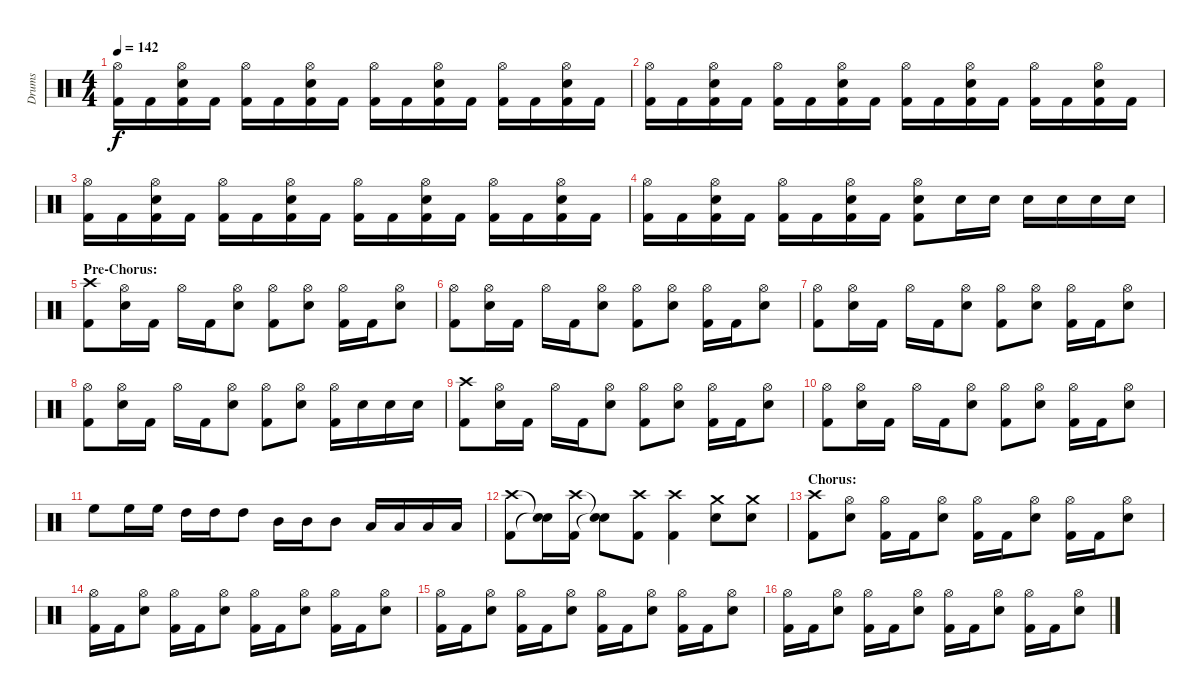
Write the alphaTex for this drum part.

\track ("Drums" "Drums") {instrument percussion}
\staff {score}
\articulation defaults
\ts (4 4)
\tempo 142
\clef neutral
\ks c
("Hi-Hat (open)" "Kick (hit) 2").16{dy f} "Kick (hit) 2".16 ("Hi-Hat (open)" "Electric Snare (hit)" "Kick (hit) 2").16 "Kick (hit) 2".16 ("Hi-Hat (open)" "Kick (hit) 2").16 "Kick (hit) 2".16 ("Hi-Hat (open)" "Electric Snare (hit)" "Kick (hit) 2").16 "Kick (hit) 2".16 ("Hi-Hat (open)" "Kick (hit) 2").16 "Kick (hit) 2".16 ("Hi-Hat (open)" "Electric Snare (hit)" "Kick (hit) 2").16 "Kick (hit) 2".16 ("Hi-Hat (open)" "Kick (hit) 2").16 "Kick (hit) 2".16 ("Hi-Hat (open)" "Electric Snare (hit)" "Kick (hit) 2").16 "Kick (hit) 2".16 |
("Hi-Hat (open)" "Kick (hit) 2").16 "Kick (hit) 2".16 ("Hi-Hat (open)" "Electric Snare (hit)" "Kick (hit) 2").16 "Kick (hit) 2".16 ("Hi-Hat (open)" "Kick (hit) 2").16 "Kick (hit) 2".16 ("Hi-Hat (open)" "Electric Snare (hit)" "Kick (hit) 2").16 "Kick (hit) 2".16 ("Hi-Hat (open)" "Kick (hit) 2").16 "Kick (hit) 2".16 ("Hi-Hat (open)" "Electric Snare (hit)" "Kick (hit) 2").16 "Kick (hit) 2".16 ("Hi-Hat (open)" "Kick (hit) 2").16 "Kick (hit) 2".16 ("Hi-Hat (open)" "Electric Snare (hit)" "Kick (hit) 2").16 "Kick (hit) 2".16 |
("Hi-Hat (open)" "Kick (hit) 2").16 "Kick (hit) 2".16 ("Hi-Hat (open)" "Electric Snare (hit)" "Kick (hit) 2").16 "Kick (hit) 2".16 ("Hi-Hat (open)" "Kick (hit) 2").16 "Kick (hit) 2".16 ("Hi-Hat (open)" "Electric Snare (hit)" "Kick (hit) 2").16 "Kick (hit) 2".16 ("Hi-Hat (open)" "Kick (hit) 2").16 "Kick (hit) 2".16 ("Hi-Hat (open)" "Electric Snare (hit)" "Kick (hit) 2").16 "Kick (hit) 2".16 ("Hi-Hat (open)" "Kick (hit) 2").16 "Kick (hit) 2".16 ("Hi-Hat (open)" "Electric Snare (hit)" "Kick (hit) 2").16 "Kick (hit) 2".16 |
("Hi-Hat (open)" "Kick (hit) 2").16 "Kick (hit) 2".16 ("Hi-Hat (open)" "Electric Snare (hit)" "Kick (hit) 2").16 "Kick (hit) 2".16 ("Hi-Hat (open)" "Kick (hit) 2").16 "Kick (hit) 2".16 ("Hi-Hat (open)" "Electric Snare (hit)" "Kick (hit) 2").16 "Kick (hit) 2".16 ("Hi-Hat (open)" "Electric Snare (hit)" "Kick (hit) 2").8 "Electric Snare (hit)".16 "Electric Snare (hit)".16 "Electric Snare (hit)".16 "Electric Snare (hit)".16 "Electric Snare (hit)".16 "Electric Snare (hit)".16 |
\section ("" "Pre-Chorus:")
("Crash high (hit)" "Kick (hit) 2").8 ("Hi-Hat (open)" "Electric Snare (hit)").16 "Kick (hit) 2".16 "Hi-Hat (open)".16 "Kick (hit) 2".16 ("Hi-Hat (open)" "Electric Snare (hit)").8 ("Hi-Hat (open)" "Kick (hit) 2").8 ("Hi-Hat (open)" "Electric Snare (hit)").8 ("Hi-Hat (open)" "Kick (hit) 2").16 "Kick (hit) 2".16 ("Hi-Hat (open)" "Electric Snare (hit)").8 |
("Hi-Hat (open)" "Kick (hit) 2").8 ("Hi-Hat (open)" "Electric Snare (hit)").16 "Kick (hit) 2".16 "Hi-Hat (open)".16 "Kick (hit) 2".16 ("Hi-Hat (open)" "Electric Snare (hit)").8 ("Hi-Hat (open)" "Kick (hit) 2").8 ("Hi-Hat (open)" "Electric Snare (hit)").8 ("Hi-Hat (open)" "Kick (hit) 2").16 "Kick (hit) 2".16 ("Hi-Hat (open)" "Electric Snare (hit)").8 |
("Hi-Hat (open)" "Kick (hit) 2").8 ("Hi-Hat (open)" "Electric Snare (hit)").16 "Kick (hit) 2".16 "Hi-Hat (open)".16 "Kick (hit) 2".16 ("Hi-Hat (open)" "Electric Snare (hit)").8 ("Hi-Hat (open)" "Kick (hit) 2").8 ("Hi-Hat (open)" "Electric Snare (hit)").8 ("Hi-Hat (open)" "Kick (hit) 2").16 "Kick (hit) 2".16 ("Hi-Hat (open)" "Electric Snare (hit)").8 |
("Hi-Hat (open)" "Kick (hit) 2").8 ("Hi-Hat (open)" "Electric Snare (hit)").16 "Kick (hit) 2".16 "Hi-Hat (open)".16 "Kick (hit) 2".16 ("Hi-Hat (open)" "Electric Snare (hit)").8 ("Hi-Hat (open)" "Kick (hit) 2").8 ("Hi-Hat (open)" "Electric Snare (hit)").8 ("Hi-Hat (open)" "Kick (hit) 2").16 "Electric Snare (hit)".16 "Electric Snare (hit)".16 "Electric Snare (hit)".16 |
("Crash high (hit)" "Kick (hit) 2").8 ("Hi-Hat (open)" "Electric Snare (hit)").16 "Kick (hit) 2".16 "Hi-Hat (open)".16 "Kick (hit) 2".16 ("Hi-Hat (open)" "Electric Snare (hit)").8 ("Hi-Hat (open)" "Kick (hit) 2").8 ("Hi-Hat (open)" "Electric Snare (hit)").8 ("Hi-Hat (open)" "Kick (hit) 2").16 "Kick (hit) 2".16 ("Hi-Hat (open)" "Electric Snare (hit)").8 |
("Hi-Hat (open)" "Kick (hit) 2").8 ("Hi-Hat (open)" "Electric Snare (hit)").16 "Kick (hit) 2".16 "Hi-Hat (open)".16 "Kick (hit) 2".16 ("Hi-Hat (open)" "Electric Snare (hit)").8 ("Hi-Hat (open)" "Kick (hit) 2").8 ("Hi-Hat (open)" "Electric Snare (hit)").8 ("Hi-Hat (open)" "Kick (hit) 2").16 "Kick (hit) 2".16 ("Hi-Hat (open)" "Electric Snare (hit)").8 |
"High Floor Tom (hit)".8 "High Floor Tom (hit)".16 "High Floor Tom (hit)".16 "High Tom (hit)".16 "High Tom (hit)".16 "High Tom (hit)".8 "Mid Tom (hit)".16 "Mid Tom (hit)".16 "Mid Tom (hit)".8 "Low Tom (hit)".16 "Low Tom (hit)".16 "Low Tom (hit)".16 "Low Tom (hit)".16 |
("Crash high (hit)" "Kick (hit) 2").8 ("Snare (hit)"{t} "Snare (hit)"{t}).16 ("Crash high (hit)" "Kick (hit) 2").16 ("Snare (hit)"{t} "Snare (hit)"{t}).8 ("Crash high (hit)" "Kick (hit) 2").8 ("Crash high (hit)" "Kick (hit) 2").4 ("Crash medium (hit)" "Electric Snare (hit)").8 ("Crash medium (hit)" "Electric Snare (hit)").8 |
\section ("" "Chorus:")
("Crash high (hit)" "Kick (hit) 2").8 ("Hi-Hat (open)" "Electric Snare (hit)").8 ("Hi-Hat (open)" "Kick (hit) 2").16 "Kick (hit) 2".16 ("Hi-Hat (open)" "Electric Snare (hit)").8 ("Hi-Hat (open)" "Kick (hit) 2").16 "Kick (hit) 2".16 ("Hi-Hat (open)" "Electric Snare (hit)").8 ("Hi-Hat (open)" "Kick (hit) 2").16 "Kick (hit) 2".16 ("Hi-Hat (open)" "Electric Snare (hit)").8 |
("Hi-Hat (open)" "Kick (hit) 2").16 "Kick (hit) 2".16 ("Hi-Hat (open)" "Electric Snare (hit)").8 ("Hi-Hat (open)" "Kick (hit) 2").16 "Kick (hit) 2".16 ("Hi-Hat (open)" "Electric Snare (hit)").8 ("Hi-Hat (open)" "Kick (hit) 2").16 "Kick (hit) 2".16 ("Hi-Hat (open)" "Electric Snare (hit)").8 ("Hi-Hat (open)" "Kick (hit) 2").16 "Kick (hit) 2".16 ("Hi-Hat (open)" "Electric Snare (hit)").8 |
("Hi-Hat (open)" "Kick (hit) 2").16 "Kick (hit) 2".16 ("Hi-Hat (open)" "Electric Snare (hit)").8 ("Hi-Hat (open)" "Kick (hit) 2").16 "Kick (hit) 2".16 ("Hi-Hat (open)" "Electric Snare (hit)").8 ("Hi-Hat (open)" "Kick (hit) 2").16 "Kick (hit) 2".16 ("Hi-Hat (open)" "Electric Snare (hit)").8 ("Hi-Hat (open)" "Kick (hit) 2").16 "Kick (hit) 2".16 ("Hi-Hat (open)" "Electric Snare (hit)").8 |
("Hi-Hat (open)" "Kick (hit) 2").16 "Kick (hit) 2".16 ("Hi-Hat (open)" "Electric Snare (hit)").8 ("Hi-Hat (open)" "Kick (hit) 2").16 "Kick (hit) 2".16 ("Hi-Hat (open)" "Electric Snare (hit)").8 ("Hi-Hat (open)" "Kick (hit) 2").16 "Kick (hit) 2".16 ("Hi-Hat (open)" "Electric Snare (hit)").8 ("Hi-Hat (open)" "Kick (hit) 2").16 "Kick (hit) 2".16 ("Hi-Hat (open)" "Electric Snare (hit)").8
